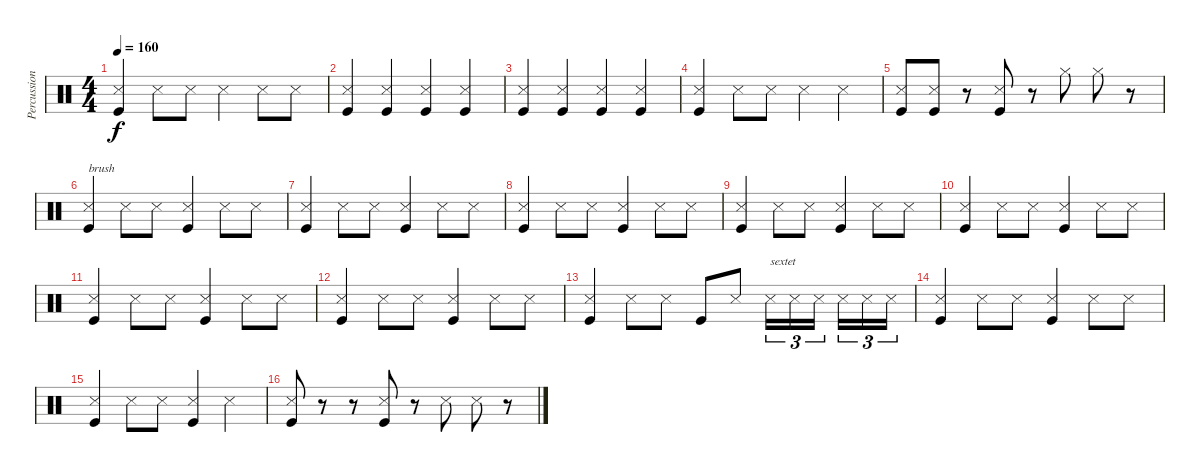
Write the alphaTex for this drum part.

\track ("Percussion" "Percussion") {instrument percussion}
\staff {score}
\articulation defaults
\ts (4 4)
\tempo 160
\clef neutral
\ks c
("Snare (side stick) 3" "Kick (hit)").4{dy f} "Snare (side stick) 3".8 "Snare (side stick) 3".8 "Snare (side stick) 3".4 "Snare (side stick) 3".8 "Snare (side stick) 3".8 |
("Snare (side stick) 3" "Kick (hit)").4 ("Snare (side stick) 3" "Kick (hit)").4 ("Snare (side stick) 3" "Kick (hit)").4 ("Snare (side stick) 3" "Kick (hit)").4 |
("Snare (side stick) 3" "Kick (hit)").4 ("Snare (side stick) 3" "Kick (hit)").4 ("Snare (side stick) 3" "Kick (hit)").4 ("Snare (side stick) 3" "Kick (hit)").4 |
("Snare (side stick) 3" "Kick (hit)").4 "Snare (side stick) 3".8 "Snare (side stick) 3".8 "Snare (side stick) 3".4 "Snare (side stick) 3".4 |
("Snare (side stick) 3" "Kick (hit)").8 ("Snare (side stick) 3" "Kick (hit)").8 r.8 ("Snare (side stick) 3" "Kick (hit)").8 r.8 "Hi-Hat (closed)".8 "Hi-Hat (closed)".8 r.8 |
("Snare (side stick) 3" "Kick (hit)").4{txt "brush"} "Snare (side stick) 3".8 "Snare (side stick) 3".8 ("Snare (side stick) 3" "Kick (hit)").4 "Snare (side stick) 3".8 "Snare (side stick) 3".8 |
("Snare (side stick) 3" "Kick (hit)").4 "Snare (side stick) 3".8 "Snare (side stick) 3".8 ("Snare (side stick) 3" "Kick (hit)").4 "Snare (side stick) 3".8 "Snare (side stick) 3".8 |
("Snare (side stick) 3" "Kick (hit)").4 "Snare (side stick) 3".8 "Snare (side stick) 3".8 ("Snare (side stick) 3" "Kick (hit)").4 "Snare (side stick) 3".8 "Snare (side stick) 3".8 |
("Snare (side stick) 3" "Kick (hit)").4 "Snare (side stick) 3".8 "Snare (side stick) 3".8 ("Snare (side stick) 3" "Kick (hit)").4 "Snare (side stick) 3".8 "Snare (side stick) 3".8 |
("Snare (side stick) 3" "Kick (hit)").4 "Snare (side stick) 3".8 "Snare (side stick) 3".8 ("Snare (side stick) 3" "Kick (hit)").4 "Snare (side stick) 3".8 "Snare (side stick) 3".8 |
("Snare (side stick) 3" "Kick (hit)").4 "Snare (side stick) 3".8 "Snare (side stick) 3".8 ("Snare (side stick) 3" "Kick (hit)").4 "Snare (side stick) 3".8 "Snare (side stick) 3".8 |
("Snare (side stick) 3" "Kick (hit)").4 "Snare (side stick) 3".8 "Snare (side stick) 3".8 ("Snare (side stick) 3" "Kick (hit)").4 "Snare (side stick) 3".8 "Snare (side stick) 3".8 |
("Snare (side stick) 3" "Kick (hit)").4 "Snare (side stick) 3".8 "Snare (side stick) 3".8 "Kick (hit)".8 "Snare (side stick) 3".8 "Snare (side stick) 3".16{tu (3 2) txt "sextet"} "Snare (side stick) 3".16{tu (3 2)} "Snare (side stick) 3".16{tu (3 2)} "Snare (side stick) 3".16{tu (3 2)} "Snare (side stick) 3".16{tu (3 2)} "Snare (side stick) 3".16{tu (3 2)} |
("Snare (side stick) 3" "Kick (hit)").4 "Snare (side stick) 3".8 "Snare (side stick) 3".8 ("Snare (side stick) 3" "Kick (hit)").4 "Snare (side stick) 3".8 "Snare (side stick) 3".8 |
("Snare (side stick) 3" "Kick (hit)").4 "Snare (side stick) 3".8 "Snare (side stick) 3".8 ("Snare (side stick) 3" "Kick (hit)").4 "Snare (side stick) 3".4 |
("Snare (side stick) 3" "Kick (hit)").8 r.8 r.8 ("Snare (side stick) 3" "Kick (hit)").8 r.8 "Snare (side stick) 3".8 "Snare (side stick) 3".8 r.8
